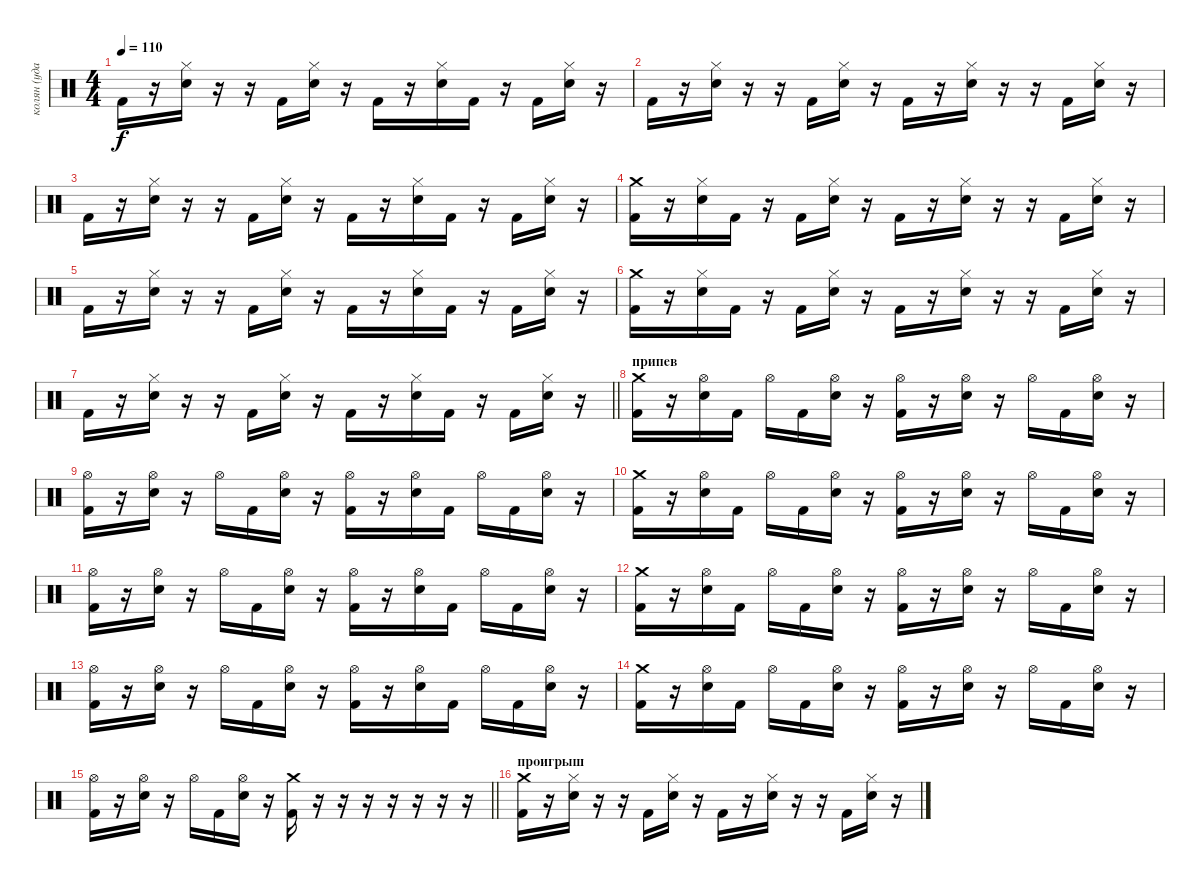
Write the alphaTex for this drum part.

\track ("колян (ударные)" "колян (уда") {instrument percussion}
\staff {score}
\articulation defaults
\ts (4 4)
\tempo 110
\clef neutral
\ks c "Kick (hit) 2".16{dy f}
r.16 ("Snare (hit) 2" "Hi-Hat (closed)").16 r.16 r.16 "Kick (hit) 2".16 ("Snare (hit) 2" "Hi-Hat (closed)").16 r.16 "Kick (hit) 2".16 r.16 ("Snare (hit) 2" "Hi-Hat (closed)").16 "Kick (hit) 2".16 r.16 "Kick (hit) 2".16 ("Snare (hit) 2" "Hi-Hat (closed)").16 r.16 |
"Kick (hit) 2".16 r.16 ("Snare (hit) 2" "Hi-Hat (closed)").16 r.16 r.16 "Kick (hit) 2".16 ("Snare (hit) 2" "Hi-Hat (closed)").16 r.16 "Kick (hit) 2".16 r.16 ("Snare (hit) 2" "Hi-Hat (closed)").16 r.16 r.16 "Kick (hit) 2".16 ("Snare (hit) 2" "Hi-Hat (closed)").16 r.16 |
"Kick (hit) 2".16 r.16 ("Snare (hit) 2" "Hi-Hat (closed)").16 r.16 r.16 "Kick (hit) 2".16 ("Snare (hit) 2" "Hi-Hat (closed)").16 r.16 "Kick (hit) 2".16 r.16 ("Snare (hit) 2" "Hi-Hat (closed)").16 "Kick (hit) 2".16 r.16 "Kick (hit) 2".16 ("Snare (hit) 2" "Hi-Hat (closed)").16 r.16 |
("Kick (hit) 2" "Crash medium (hit)").16 r.16 ("Snare (hit) 2" "Hi-Hat (closed)").16 "Kick (hit) 2".16 r.16 "Kick (hit) 2".16 ("Snare (hit) 2" "Hi-Hat (closed)").16 r.16 "Kick (hit) 2".16 r.16 ("Snare (hit) 2" "Hi-Hat (closed)").16 r.16 r.16 "Kick (hit) 2".16 ("Snare (hit) 2" "Hi-Hat (closed)").16 r.16 |
"Kick (hit) 2".16 r.16 ("Snare (hit) 2" "Hi-Hat (closed)").16 r.16 r.16 "Kick (hit) 2".16 ("Snare (hit) 2" "Hi-Hat (closed)").16 r.16 "Kick (hit) 2".16 r.16 ("Snare (hit) 2" "Hi-Hat (closed)").16 "Kick (hit) 2".16 r.16 "Kick (hit) 2".16 ("Snare (hit) 2" "Hi-Hat (closed)").16 r.16 |
("Kick (hit) 2" "Crash medium (hit)").16 r.16 ("Snare (hit) 2" "Hi-Hat (closed)").16 "Kick (hit) 2".16 r.16 "Kick (hit) 2".16 ("Snare (hit) 2" "Hi-Hat (closed)").16 r.16 "Kick (hit) 2".16 r.16 ("Snare (hit) 2" "Hi-Hat (closed)").16 r.16 r.16 "Kick (hit) 2".16 ("Snare (hit) 2" "Hi-Hat (closed)").16 r.16 |
\barLineRight lightlight "Kick (hit) 2".16
r.16 ("Snare (hit) 2" "Hi-Hat (closed)").16 r.16 r.16 "Kick (hit) 2".16 ("Snare (hit) 2" "Hi-Hat (closed)").16 r.16 "Kick (hit) 2".16 r.16 ("Snare (hit) 2" "Hi-Hat (closed)").16 "Kick (hit) 2".16 r.16 "Kick (hit) 2".16 ("Snare (hit) 2" "Hi-Hat (closed)").16 r.16 |
\section ("" "припев")
("Kick (hit) 2" "Crash medium (hit)").16 r.16 ("Snare (hit) 2" "Hi-Hat (open)").16 "Kick (hit) 2".16 "Hi-Hat (open)".16 "Kick (hit) 2".16 ("Snare (hit) 2" "Hi-Hat (open)").16 r.16 ("Kick (hit) 2" "Hi-Hat (open)").16 r.16 ("Snare (hit) 2" "Hi-Hat (open)").16 r.16 "Hi-Hat (open)".16 "Kick (hit) 2".16 ("Snare (hit) 2" "Hi-Hat (open)").16 r.16 |
("Kick (hit) 2" "Hi-Hat (open)").16 r.16 ("Snare (hit) 2" "Hi-Hat (open)").16 r.16 "Hi-Hat (open)".16 "Kick (hit) 2".16 ("Snare (hit) 2" "Hi-Hat (open)").16 r.16 ("Kick (hit) 2" "Hi-Hat (open)").16 r.16 ("Snare (hit) 2" "Hi-Hat (open)").16 "Kick (hit) 2".16 "Hi-Hat (open)".16 "Kick (hit) 2".16 ("Snare (hit) 2" "Hi-Hat (open)").16 r.16 |
("Kick (hit) 2" "Crash medium (hit)").16 r.16 ("Snare (hit) 2" "Hi-Hat (open)").16 "Kick (hit) 2".16 "Hi-Hat (open)".16 "Kick (hit) 2".16 ("Snare (hit) 2" "Hi-Hat (open)").16 r.16 ("Kick (hit) 2" "Hi-Hat (open)").16 r.16 ("Snare (hit) 2" "Hi-Hat (open)").16 r.16 "Hi-Hat (open)".16 "Kick (hit) 2".16 ("Snare (hit) 2" "Hi-Hat (open)").16 r.16 |
("Kick (hit) 2" "Hi-Hat (open)").16 r.16 ("Snare (hit) 2" "Hi-Hat (open)").16 r.16 "Hi-Hat (open)".16 "Kick (hit) 2".16 ("Snare (hit) 2" "Hi-Hat (open)").16 r.16 ("Kick (hit) 2" "Hi-Hat (open)").16 r.16 ("Snare (hit) 2" "Hi-Hat (open)").16 "Kick (hit) 2".16 "Hi-Hat (open)".16 "Kick (hit) 2".16 ("Snare (hit) 2" "Hi-Hat (open)").16 r.16 |
("Kick (hit) 2" "Crash medium (hit)").16 r.16 ("Snare (hit) 2" "Hi-Hat (open)").16 "Kick (hit) 2".16 "Hi-Hat (open)".16 "Kick (hit) 2".16 ("Snare (hit) 2" "Hi-Hat (open)").16 r.16 ("Kick (hit) 2" "Hi-Hat (open)").16 r.16 ("Snare (hit) 2" "Hi-Hat (open)").16 r.16 "Hi-Hat (open)".16 "Kick (hit) 2".16 ("Snare (hit) 2" "Hi-Hat (open)").16 r.16 |
("Kick (hit) 2" "Hi-Hat (open)").16 r.16 ("Snare (hit) 2" "Hi-Hat (open)").16 r.16 "Hi-Hat (open)".16 "Kick (hit) 2".16 ("Snare (hit) 2" "Hi-Hat (open)").16 r.16 ("Kick (hit) 2" "Hi-Hat (open)").16 r.16 ("Snare (hit) 2" "Hi-Hat (open)").16 "Kick (hit) 2".16 "Hi-Hat (open)".16 "Kick (hit) 2".16 ("Snare (hit) 2" "Hi-Hat (open)").16 r.16 |
("Kick (hit) 2" "Crash medium (hit)").16 r.16 ("Snare (hit) 2" "Hi-Hat (open)").16 "Kick (hit) 2".16 "Hi-Hat (open)".16 "Kick (hit) 2".16 ("Snare (hit) 2" "Hi-Hat (open)").16 r.16 ("Kick (hit) 2" "Hi-Hat (open)").16 r.16 ("Snare (hit) 2" "Hi-Hat (open)").16 r.16 "Hi-Hat (open)".16 "Kick (hit) 2".16 ("Snare (hit) 2" "Hi-Hat (open)").16 r.16 |
\barLineRight lightlight
("Kick (hit) 2" "Hi-Hat (open)").16 r.16 ("Snare (hit) 2" "Hi-Hat (open)").16 r.16 "Hi-Hat (open)".16 "Kick (hit) 2".16 ("Snare (hit) 2" "Hi-Hat (open)").16 r.16 ("Kick (hit) 2" "Crash medium (hit)").16 r.16 r.16 r.16 r.16 r.16 r.16 r.16 |
\section ("" "проигрыш")
("Kick (hit) 2" "Crash medium (hit)").16 r.16 ("Snare (hit) 2" "Hi-Hat (closed)").16 r.16 r.16 "Kick (hit) 2".16 ("Snare (hit) 2" "Hi-Hat (closed)").16 r.16 "Kick (hit) 2".16 r.16 ("Snare (hit) 2" "Hi-Hat (closed)").16 r.16 r.16 "Kick (hit) 2".16 ("Snare (hit) 2" "Hi-Hat (closed)").16 r.16
